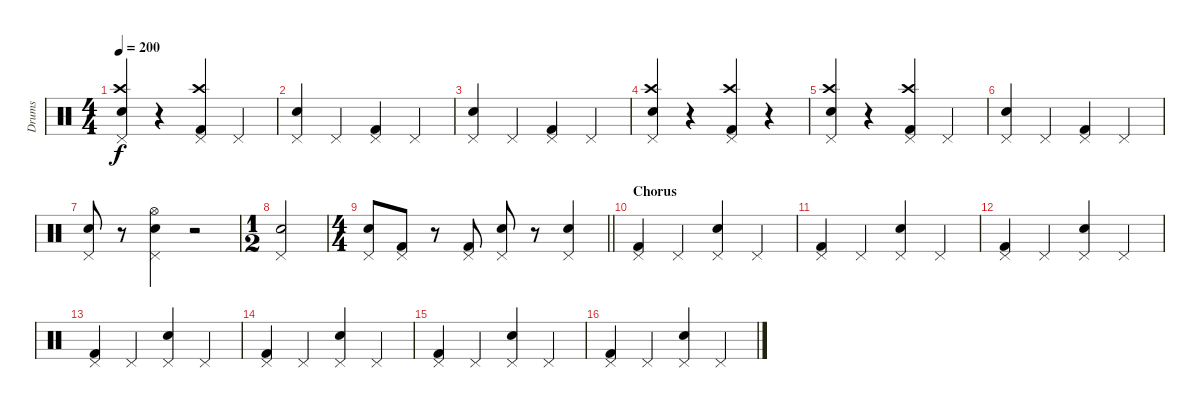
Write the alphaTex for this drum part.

\track ("Drums" "Drums") {instrument percussion}
\staff {score}
\articulation defaults
\ts (4 4)
\tempo 200
\clef neutral
\ks c
("Pedal Hi-Hat (hit)" "Crash high (hit)" "Snare (hit) 2").4{dy f} r.4 ("Pedal Hi-Hat (hit)" "Crash high (hit)" "Kick (hit) 2").4 "Pedal Hi-Hat (hit)".4 |
("Pedal Hi-Hat (hit)" "Snare (hit) 2").4 "Pedal Hi-Hat (hit)".4 ("Pedal Hi-Hat (hit)" "Kick (hit) 2").4 "Pedal Hi-Hat (hit)".4 |
("Pedal Hi-Hat (hit)" "Snare (hit) 2").4 "Pedal Hi-Hat (hit)".4 ("Pedal Hi-Hat (hit)" "Kick (hit) 2").4 "Pedal Hi-Hat (hit)".4 |
("Pedal Hi-Hat (hit)" "Crash high (hit)" "Snare (hit) 2").4 r.4 ("Pedal Hi-Hat (hit)" "Crash high (hit)" "Kick (hit) 2").4 r.4 |
("Pedal Hi-Hat (hit)" "Crash high (hit)" "Snare (hit) 2").4 r.4 ("Pedal Hi-Hat (hit)" "Crash high (hit)" "Kick (hit) 2").4 "Pedal Hi-Hat (hit)".4 |
("Pedal Hi-Hat (hit)" "Snare (hit) 2").4 "Pedal Hi-Hat (hit)".4 ("Pedal Hi-Hat (hit)" "Kick (hit) 2").4 "Pedal Hi-Hat (hit)".4 |
("Pedal Hi-Hat (hit)" "Snare (hit) 2").8 r.8 ("Pedal Hi-Hat (hit)" "Hi-Hat (open)" "Snare (hit) 2").4 r.2 |
\ts (1 2)
("Pedal Hi-Hat (hit)" "Snare (hit) 2").2 |
\ts (4 4)
\barLineRight lightlight
("Pedal Hi-Hat (hit)" "Snare (hit) 2").8 ("Pedal Hi-Hat (hit)" "Kick (hit) 2").8 r.8 ("Pedal Hi-Hat (hit)" "Kick (hit) 2").8 ("Pedal Hi-Hat (hit)" "Snare (hit) 2").8 r.8 ("Pedal Hi-Hat (hit)" "Snare (hit) 2").4 |
\section ("" "Chorus")
("Pedal Hi-Hat (hit)" "Kick (hit) 2").4 "Pedal Hi-Hat (hit)".4 ("Pedal Hi-Hat (hit)" "Snare (hit) 2").4 "Pedal Hi-Hat (hit)".4 |
("Pedal Hi-Hat (hit)" "Kick (hit) 2").4 "Pedal Hi-Hat (hit)".4 ("Pedal Hi-Hat (hit)" "Snare (hit) 2").4 "Pedal Hi-Hat (hit)".4 |
("Pedal Hi-Hat (hit)" "Kick (hit) 2").4 "Pedal Hi-Hat (hit)".4 ("Pedal Hi-Hat (hit)" "Snare (hit) 2").4 "Pedal Hi-Hat (hit)".4 |
("Pedal Hi-Hat (hit)" "Kick (hit) 2").4 "Pedal Hi-Hat (hit)".4 ("Pedal Hi-Hat (hit)" "Snare (hit) 2").4 "Pedal Hi-Hat (hit)".4 |
("Pedal Hi-Hat (hit)" "Kick (hit) 2").4 "Pedal Hi-Hat (hit)".4 ("Pedal Hi-Hat (hit)" "Snare (hit) 2").4 "Pedal Hi-Hat (hit)".4 |
("Pedal Hi-Hat (hit)" "Kick (hit) 2").4 "Pedal Hi-Hat (hit)".4 ("Pedal Hi-Hat (hit)" "Snare (hit) 2").4 "Pedal Hi-Hat (hit)".4 |
("Pedal Hi-Hat (hit)" "Kick (hit) 2").4 "Pedal Hi-Hat (hit)".4 ("Pedal Hi-Hat (hit)" "Snare (hit) 2").4 "Pedal Hi-Hat (hit)".4
